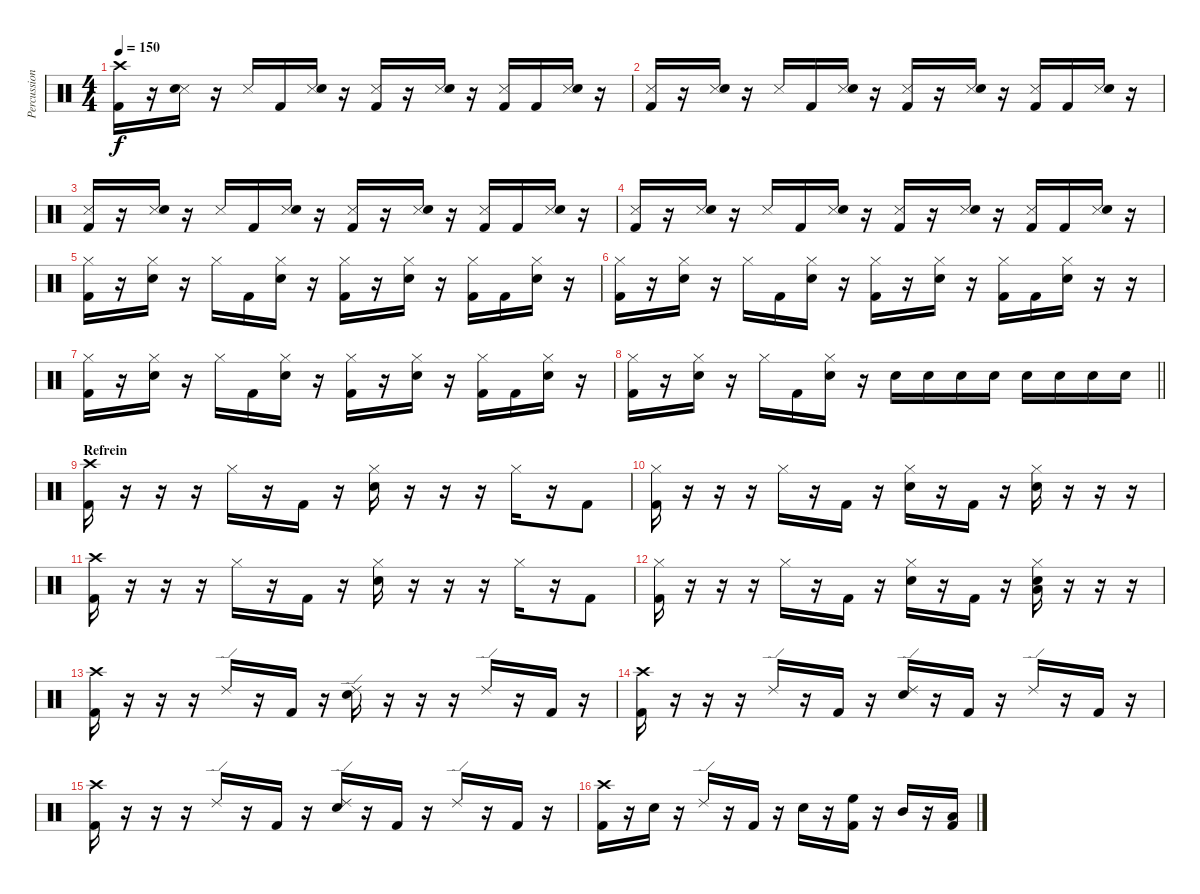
\track ("Percussion" "Percussion") {instrument percussion}
\staff {score}
\articulation defaults
\ts (4 4)
\tempo 150
\clef neutral
\ks c
("Crash high (hit)" "Kick (hit) 2").16{dy f} r.16 ("Metronome (hit)" "Electric Snare (hit)").16 r.16 "Metronome (hit)".16 "Kick (hit) 2".16 ("Metronome (hit)" "Electric Snare (hit)").16 r.16 ("Metronome (hit)" "Kick (hit) 2").16 r.16 ("Metronome (hit)" "Electric Snare (hit)").16 r.16 ("Metronome (hit)" "Kick (hit) 2").16 "Kick (hit) 2".16 ("Metronome (hit)" "Electric Snare (hit)").16 r.16 |
("Metronome (hit)" "Kick (hit) 2").16 r.16 ("Metronome (hit)" "Electric Snare (hit)").16 r.16 "Metronome (hit)".16 "Kick (hit) 2".16 ("Metronome (hit)" "Electric Snare (hit)").16 r.16 ("Metronome (hit)" "Kick (hit) 2").16 r.16 ("Metronome (hit)" "Electric Snare (hit)").16 r.16 ("Metronome (hit)" "Kick (hit) 2").16 "Kick (hit) 2".16 ("Metronome (hit)" "Electric Snare (hit)").16 r.16 |
("Metronome (hit)" "Kick (hit) 2").16 r.16 ("Metronome (hit)" "Electric Snare (hit)").16 r.16 "Metronome (hit)".16 "Kick (hit) 2".16 ("Metronome (hit)" "Electric Snare (hit)").16 r.16 ("Metronome (hit)" "Kick (hit) 2").16 r.16 ("Metronome (hit)" "Electric Snare (hit)").16 r.16 ("Metronome (hit)" "Kick (hit) 2").16 "Kick (hit) 2".16 ("Metronome (hit)" "Electric Snare (hit)").16 r.16 |
("Metronome (hit)" "Kick (hit) 2").16 r.16 ("Metronome (hit)" "Electric Snare (hit)").16 r.16 "Metronome (hit)".16 "Kick (hit) 2".16 ("Metronome (hit)" "Electric Snare (hit)").16 r.16 ("Metronome (hit)" "Kick (hit) 2").16 r.16 ("Metronome (hit)" "Electric Snare (hit)").16 r.16 ("Metronome (hit)" "Kick (hit) 2").16 "Kick (hit) 2".16 ("Metronome (hit)" "Electric Snare (hit)").16 r.16 |
("Hi-Hat (closed)" "Kick (hit) 2").16 r.16 ("Hi-Hat (closed)" "Electric Snare (hit)").16 r.16 "Hi-Hat (closed)".16 "Kick (hit) 2".16 ("Hi-Hat (closed)" "Electric Snare (hit)").16 r.16 ("Hi-Hat (closed)" "Kick (hit) 2").16 r.16 ("Hi-Hat (closed)" "Electric Snare (hit)").16 r.16 ("Hi-Hat (closed)" "Kick (hit) 2").16 "Kick (hit) 2".16 ("Hi-Hat (closed)" "Electric Snare (hit)").16 r.16 |
("Hi-Hat (closed)" "Kick (hit) 2").16 r.16 ("Hi-Hat (closed)" "Electric Snare (hit)").16 r.16 "Hi-Hat (closed)".16 "Kick (hit) 2".16 ("Hi-Hat (closed)" "Electric Snare (hit)").16 r.16 ("Hi-Hat (closed)" "Kick (hit) 2").16 r.16 ("Hi-Hat (closed)" "Electric Snare (hit)").16 r.16 ("Hi-Hat (closed)" "Kick (hit) 2").16 "Kick (hit) 2".16 ("Hi-Hat (closed)" "Electric Snare (hit)").16 r.16 r.16 |
("Hi-Hat (closed)" "Kick (hit) 2").16 r.16 ("Hi-Hat (closed)" "Electric Snare (hit)").16 r.16 "Hi-Hat (closed)".16 "Kick (hit) 2".16 ("Hi-Hat (closed)" "Electric Snare (hit)").16 r.16 ("Hi-Hat (closed)" "Kick (hit) 2").16 r.16 ("Hi-Hat (closed)" "Electric Snare (hit)").16 r.16 ("Hi-Hat (closed)" "Kick (hit) 2").16 "Kick (hit) 2".16 ("Hi-Hat (closed)" "Electric Snare (hit)").16 r.16 |
\barLineRight lightlight
("Hi-Hat (closed)" "Kick (hit) 2").16 r.16 ("Hi-Hat (closed)" "Electric Snare (hit)").16 r.16 "Hi-Hat (closed)".16 "Kick (hit) 2".16 ("Hi-Hat (closed)" "Electric Snare (hit)").16 r.16 "Electric Snare (hit)".16 "Electric Snare (hit)".16 "Electric Snare (hit)".16 "Electric Snare (hit)".16 "Electric Snare (hit)".16 "Electric Snare (hit)".16 "Electric Snare (hit)".16 "Electric Snare (hit)".16 |
\section ("" "Refrein")
("Crash high (hit)" "Kick (hit) 2").16 r.16 r.16 r.16 "Hi-Hat (closed)".16 r.16 "Kick (hit) 2".16 r.16 ("Hi-Hat (closed)" "Electric Snare (hit)").16 r.16 r.16 r.16 "Hi-Hat (closed)".16 r.16 "Kick (hit) 2".8 |
("Hi-Hat (closed)" "Kick (hit) 2").16 r.16 r.16 r.16 "Hi-Hat (closed)".16 r.16 "Kick (hit) 2".16 r.16 ("Hi-Hat (closed)" "Electric Snare (hit)").16 r.16 "Kick (hit) 2".16 r.16 ("Hi-Hat (closed)" "Electric Snare (hit)").16 r.16 r.16 r.16 |
("Crash high (hit)" "Kick (hit) 2").16 r.16 r.16 r.16 "Hi-Hat (closed)".16 r.16 "Kick (hit) 2".16 r.16 ("Hi-Hat (closed)" "Electric Snare (hit)").16 r.16 r.16 r.16 "Hi-Hat (closed)".16 r.16 "Kick (hit) 2".8 |
("Hi-Hat (closed)" "Kick (hit) 2").16 r.16 r.16 r.16 "Hi-Hat (closed)".16 r.16 "Kick (hit) 2".16 r.16 ("Hi-Hat (closed)" "Electric Snare (hit)").16 r.16 "Kick (hit) 2".16 r.16 ("Hi-Hat (closed)" "Electric Snare (hit)" "Low Floor Tom (hit)").16 r.16 r.16 r.16 |
("Crash high (hit)" "Kick (hit) 2").16 r.16 r.16 r.16 "Ride (edge) 2".16 r.16 "Kick (hit) 2".16 r.16 ("Ride (edge) 2" "Electric Snare (hit)").16 r.16 r.16 r.16 "Ride (edge) 2".16 r.16 "Kick (hit) 2".16 r.16 |
("Crash high (hit)" "Kick (hit) 2").16 r.16 r.16 r.16 "Ride (edge) 2".16 r.16 "Kick (hit) 2".16 r.16 ("Ride (edge) 2" "Electric Snare (hit)").16 r.16 "Kick (hit) 2".16 r.16 "Ride (edge) 2".16 r.16 "Kick (hit) 2".16 r.16 |
("Crash high (hit)" "Kick (hit) 2").16 r.16 r.16 r.16 "Ride (edge) 2".16 r.16 "Kick (hit) 2".16 r.16 ("Ride (edge) 2" "Electric Snare (hit)").16 r.16 "Kick (hit) 2".16 r.16 "Ride (edge) 2".16 r.16 "Kick (hit) 2".16 r.16 |
("Crash high (hit)" "Kick (hit) 2").16 r.16 "Electric Snare (hit)".16 r.16 "Ride (edge) 2".16 r.16 "Kick (hit) 2".16 r.16 "Electric Snare (hit)".16 r.16 ("High Floor Tom (hit)" "Kick (hit) 2").16 r.16 "Mid Tom (hit)".16 r.16 ("Low Tom (hit)" "Kick (hit) 2").16
